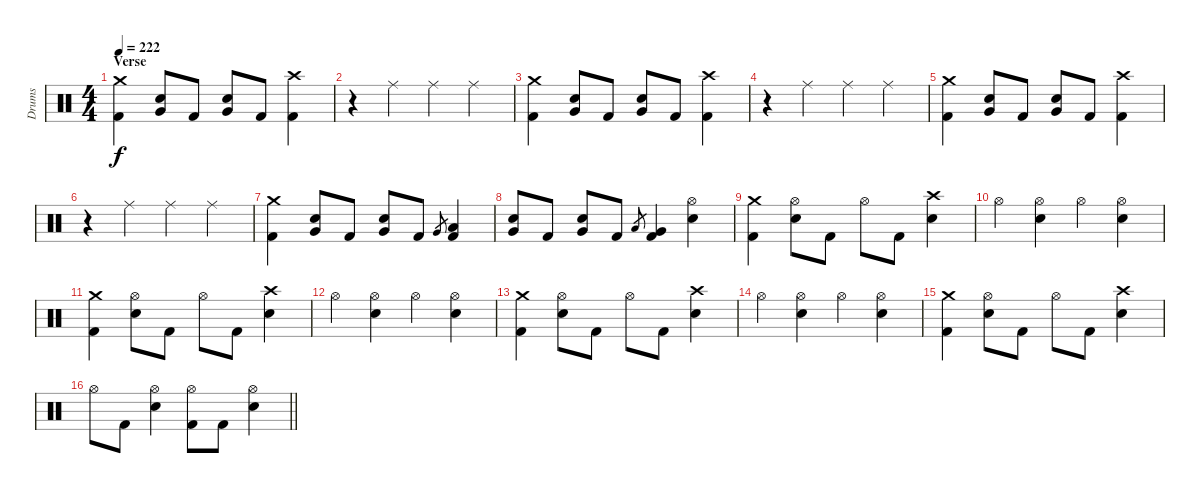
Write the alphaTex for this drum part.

\track ("Drums" "Drums") {instrument percussion}
\staff {score}
\articulation defaults
\ts (4 4)
\section ("" "Verse")
\tempo 222
\clef neutral
\ks c
("Crash medium (hit)" "Kick (hit) 2").4{dy f} ("Electric Snare (hit)" "Very Low Tom (hit)").8 "Kick (hit) 2".8 ("Electric Snare (hit)" "Very Low Tom (hit)").8 "Kick (hit) 2".8 ("Crash high (hit)" "Kick (hit) 2").4 |
r.4 "Ride (middle)".4 "Ride (middle)".4 "Ride (middle)".4 |
("Crash medium (hit)" "Kick (hit) 2").4 ("Electric Snare (hit)" "Very Low Tom (hit)").8 "Kick (hit) 2".8 ("Electric Snare (hit)" "Very Low Tom (hit)").8 "Kick (hit) 2".8 ("Crash high (hit)" "Kick (hit) 2").4 |
r.4 "Ride (middle)".4 "Ride (middle)".4 "Ride (middle)".4 |
("Crash medium (hit)" "Kick (hit) 2").4 ("Electric Snare (hit)" "Very Low Tom (hit)").8 "Kick (hit) 2".8 ("Electric Snare (hit)" "Very Low Tom (hit)").8 "Kick (hit) 2".8 ("Crash high (hit)" "Kick (hit) 2").4 |
r.4 "Ride (middle)".4 "Ride (middle)".4 "Ride (middle)".4 |
("Crash medium (hit)" "Kick (hit) 2").4 ("Electric Snare (hit)" "Very Low Tom (hit)").8 "Kick (hit) 2".8 ("Electric Snare (hit)" "Very Low Tom (hit)").8 "Kick (hit) 2".8 "Very Low Tom (hit)".8{gr} ("Low Tom (hit)" "Kick (hit) 2").4 |
("Electric Snare (hit)" "Very Low Tom (hit)").8 "Kick (hit) 2".8 ("Electric Snare (hit)" "Very Low Tom (hit)").8 "Kick (hit) 2".8 "Low Floor Tom (hit)".8{gr} ("Very Low Tom (hit)" "Kick (hit) 2").4 ("Hi-Hat (open)" "Electric Snare (hit)").4 |
("Crash medium (hit)" "Kick (hit) 2").4 ("Hi-Hat (open)" "Electric Snare (hit)").8 "Kick (hit) 2".8 "Hi-Hat (open)".8 "Kick (hit) 2".8 ("Crash high (hit)" "Electric Snare (hit)").4 |
"Hi-Hat (open)".4 ("Hi-Hat (open)" "Electric Snare (hit)").4 "Hi-Hat (open)".4 ("Hi-Hat (open)" "Electric Snare (hit)").4 |
("Crash medium (hit)" "Kick (hit) 2").4 ("Hi-Hat (open)" "Electric Snare (hit)").8 "Kick (hit) 2".8 "Hi-Hat (open)".8 "Kick (hit) 2".8 ("Crash high (hit)" "Electric Snare (hit)").4 |
"Hi-Hat (open)".4 ("Hi-Hat (open)" "Electric Snare (hit)").4 "Hi-Hat (open)".4 ("Hi-Hat (open)" "Electric Snare (hit)").4 |
("Crash medium (hit)" "Kick (hit) 2").4 ("Hi-Hat (open)" "Electric Snare (hit)").8 "Kick (hit) 2".8 "Hi-Hat (open)".8 "Kick (hit) 2".8 ("Crash high (hit)" "Electric Snare (hit)").4 |
"Hi-Hat (open)".4 ("Hi-Hat (open)" "Electric Snare (hit)").4 "Hi-Hat (open)".4 ("Hi-Hat (open)" "Electric Snare (hit)").4 |
("Crash medium (hit)" "Kick (hit) 2").4 ("Hi-Hat (open)" "Electric Snare (hit)").8 "Kick (hit) 2".8 "Hi-Hat (open)".8 "Kick (hit) 2".8 ("Crash high (hit)" "Electric Snare (hit)").4 |
\barLineRight lightlight "Hi-Hat (open)".8 "Kick (hit) 2".8
("Hi-Hat (open)" "Electric Snare (hit)").4 ("Hi-Hat (open)" "Kick (hit) 2").8 "Kick (hit) 2".8 ("Hi-Hat (open)" "Electric Snare (hit)").4
